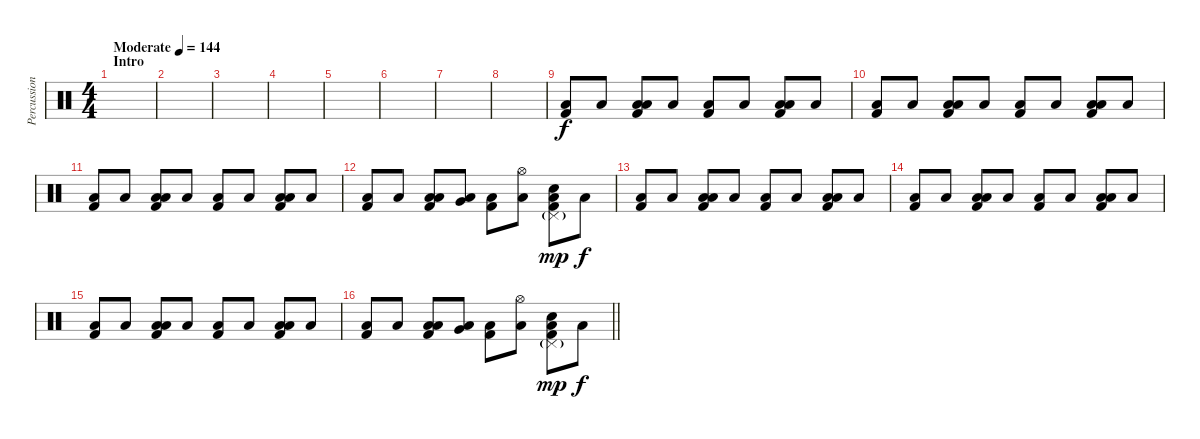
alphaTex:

\track ("Percussion" "Percussion") {instrument percussion}
\staff {score}
\articulation defaults
\ts (4 4)
\section ("" "Intro")
\tempo (144 "Moderate")
\clef neutral
\ks c
|
|
|
|
|
|
|
|
("Low Floor Tom (hit)" "Kick (hit) 2").8 "Low Floor Tom (hit)".8 ("Low Tom (hit)" "Low Floor Tom (hit)" "Kick (hit) 2").8 "Low Floor Tom (hit)".8 ("Low Floor Tom (hit)" "Kick (hit) 2").8 "Low Floor Tom (hit)".8 ("Low Tom (hit)" "Low Floor Tom (hit)" "Kick (hit) 2").8 "Low Floor Tom (hit)".8 |
("Low Floor Tom (hit)" "Kick (hit) 2").8 "Low Floor Tom (hit)".8 ("Low Tom (hit)" "Low Floor Tom (hit)" "Kick (hit) 2").8 "Low Floor Tom (hit)".8 ("Low Floor Tom (hit)" "Kick (hit) 2").8 "Low Floor Tom (hit)".8 ("Low Tom (hit)" "Low Floor Tom (hit)" "Kick (hit) 2").8 "Low Floor Tom (hit)".8 |
("Low Floor Tom (hit)" "Kick (hit) 2").8 "Low Floor Tom (hit)".8 ("Low Tom (hit)" "Low Floor Tom (hit)" "Kick (hit) 2").8 "Low Floor Tom (hit)".8 ("Low Floor Tom (hit)" "Kick (hit) 2").8 "Low Floor Tom (hit)".8 ("Low Tom (hit)" "Low Floor Tom (hit)" "Kick (hit) 2").8 "Low Floor Tom (hit)".8 |
("Low Floor Tom (hit)" "Kick (hit) 2").8 "Low Floor Tom (hit)".8 ("Low Tom (hit)" "Low Floor Tom (hit)" "Kick (hit) 2").8 ("Very Low Tom (hit)" "Low Floor Tom (hit)").8 ("Low Floor Tom (hit)" "Kick (hit) 2").8 ("Hi-Hat (open)" "Low Floor Tom (hit)").8 ("Pedal Hi-Hat (hit)"{g} "Electric Snare (hit)" "Low Floor Tom (hit)" "Kick (hit) 2").8{dy mp} "Low Floor Tom (hit)".8{dy f} |
("Low Floor Tom (hit)" "Kick (hit) 2").8 "Low Floor Tom (hit)".8 ("Low Tom (hit)" "Low Floor Tom (hit)" "Kick (hit) 2").8 "Low Floor Tom (hit)".8 ("Low Floor Tom (hit)" "Kick (hit) 2").8 "Low Floor Tom (hit)".8 ("Low Tom (hit)" "Low Floor Tom (hit)" "Kick (hit) 2").8 "Low Floor Tom (hit)".8 |
("Low Floor Tom (hit)" "Kick (hit) 2").8 "Low Floor Tom (hit)".8 ("Low Tom (hit)" "Low Floor Tom (hit)" "Kick (hit) 2").8 "Low Floor Tom (hit)".8 ("Low Floor Tom (hit)" "Kick (hit) 2").8 "Low Floor Tom (hit)".8 ("Low Tom (hit)" "Low Floor Tom (hit)" "Kick (hit) 2").8 "Low Floor Tom (hit)".8 |
("Low Floor Tom (hit)" "Kick (hit) 2").8 "Low Floor Tom (hit)".8 ("Low Tom (hit)" "Low Floor Tom (hit)" "Kick (hit) 2").8 "Low Floor Tom (hit)".8 ("Low Floor Tom (hit)" "Kick (hit) 2").8 "Low Floor Tom (hit)".8 ("Low Tom (hit)" "Low Floor Tom (hit)" "Kick (hit) 2").8 "Low Floor Tom (hit)".8 |
\barLineRight lightlight
("Low Floor Tom (hit)" "Kick (hit) 2").8 "Low Floor Tom (hit)".8 ("Low Tom (hit)" "Low Floor Tom (hit)" "Kick (hit) 2").8 ("Very Low Tom (hit)" "Low Floor Tom (hit)").8 ("Low Floor Tom (hit)" "Kick (hit) 2").8 ("Hi-Hat (open)" "Low Floor Tom (hit)").8 ("Pedal Hi-Hat (hit)"{g} "Electric Snare (hit)" "Low Floor Tom (hit)" "Kick (hit) 2").8{dy mp} "Low Floor Tom (hit)".8{dy f}
